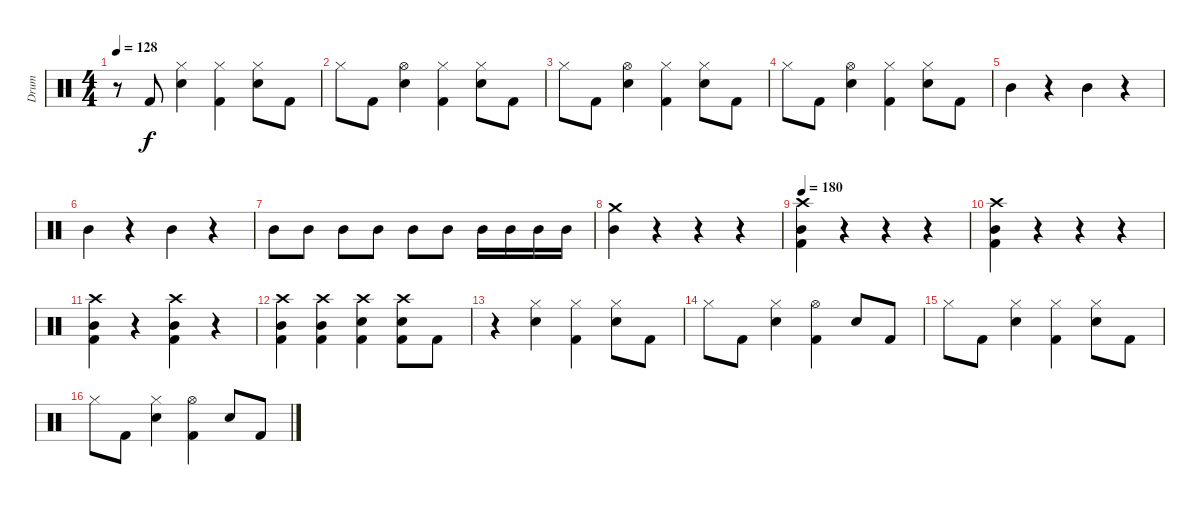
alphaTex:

\track ("Drum" "Drum") {instrument percussion}
\staff {score}
\articulation defaults
\ts (4 4)
\tempo 128
\clef neutral
\ks c
r.8{dy f} "Kick (hit) 2".8 ("Hi-Hat (closed)" "Snare (hit) 2").4 ("Hi-Hat (closed)" "Kick (hit) 2").4 ("Hi-Hat (closed)" "Snare (hit) 2").8 "Kick (hit) 2".8 |
"Hi-Hat (closed)".8 "Kick (hit) 2".8 ("Hi-Hat (open)" "Snare (hit) 2").4 ("Hi-Hat (closed)" "Kick (hit) 2").4 ("Hi-Hat (closed)" "Snare (hit) 2").8 "Kick (hit) 2".8 |
"Hi-Hat (closed)".8 "Kick (hit) 2".8 ("Hi-Hat (open)" "Snare (hit) 2").4 ("Hi-Hat (closed)" "Kick (hit) 2").4 ("Hi-Hat (closed)" "Snare (hit) 2").8 "Kick (hit) 2".8 |
"Hi-Hat (closed)".8 "Kick (hit) 2".8 ("Hi-Hat (open)" "Snare (hit) 2").4 ("Hi-Hat (closed)" "Kick (hit) 2").4 ("Hi-Hat (closed)" "Snare (hit) 2").8 "Kick (hit) 2".8 |
"Mid Tom (hit)".4 r.4 "Mid Tom (hit)".4 r.4 |
"Mid Tom (hit)".4 r.4 "Mid Tom (hit)".4 r.4 |
"Mid Tom (hit)".8 "Mid Tom (hit)".8 "Mid Tom (hit)".8 "Mid Tom (hit)".8 "Mid Tom (hit)".8 "Mid Tom (hit)".8 "Mid Tom (hit)".16 "Mid Tom (hit)".16 "Mid Tom (hit)".16 "Mid Tom (hit)".16 |
("Crash medium (hit)" "Mid Tom (hit)").4 r.4 r.4 r.4 |
\tempo 180
("Crash high (hit)" "Mid Tom (hit)" "Kick (hit) 2").4 r.4 r.4 r.4 |
("Crash high (hit)" "Mid Tom (hit)" "Kick (hit) 2").4 r.4 r.4 r.4 |
("Crash high (hit)" "Mid Tom (hit)" "Kick (hit) 2").4 r.4 ("Crash high (hit)" "Mid Tom (hit)" "Kick (hit) 2").4 r.4 |
("Crash high (hit)" "Mid Tom (hit)" "Kick (hit) 2").4 ("Crash high (hit)" "Mid Tom (hit)" "Kick (hit) 2").4 ("Crash high (hit)" "Snare (hit) 2" "Kick (hit) 2").4 ("Crash high (hit)" "Snare (hit) 2" "Kick (hit) 2").8 "Kick (hit) 2".8 |
r.4 ("Hi-Hat (closed)" "Snare (hit) 2").4 ("Hi-Hat (closed)" "Kick (hit) 2").4 ("Hi-Hat (closed)" "Snare (hit) 2").8 "Kick (hit) 2".8 |
"Hi-Hat (closed)".8 "Kick (hit) 2".8 ("Hi-Hat (closed)" "Snare (hit) 2").4 ("Hi-Hat (open)" "Kick (hit) 2").4 "Snare (hit) 2".8 "Kick (hit) 2".8 |
"Hi-Hat (closed)".8 "Kick (hit) 2".8 ("Hi-Hat (closed)" "Snare (hit) 2").4 ("Hi-Hat (closed)" "Kick (hit) 2").4 ("Hi-Hat (closed)" "Snare (hit) 2").8 "Kick (hit) 2".8 |
"Hi-Hat (closed)".8 "Kick (hit) 2".8 ("Hi-Hat (closed)" "Snare (hit) 2").4 ("Hi-Hat (open)" "Kick (hit) 2").4 "Snare (hit) 2".8 "Kick (hit) 2".8
